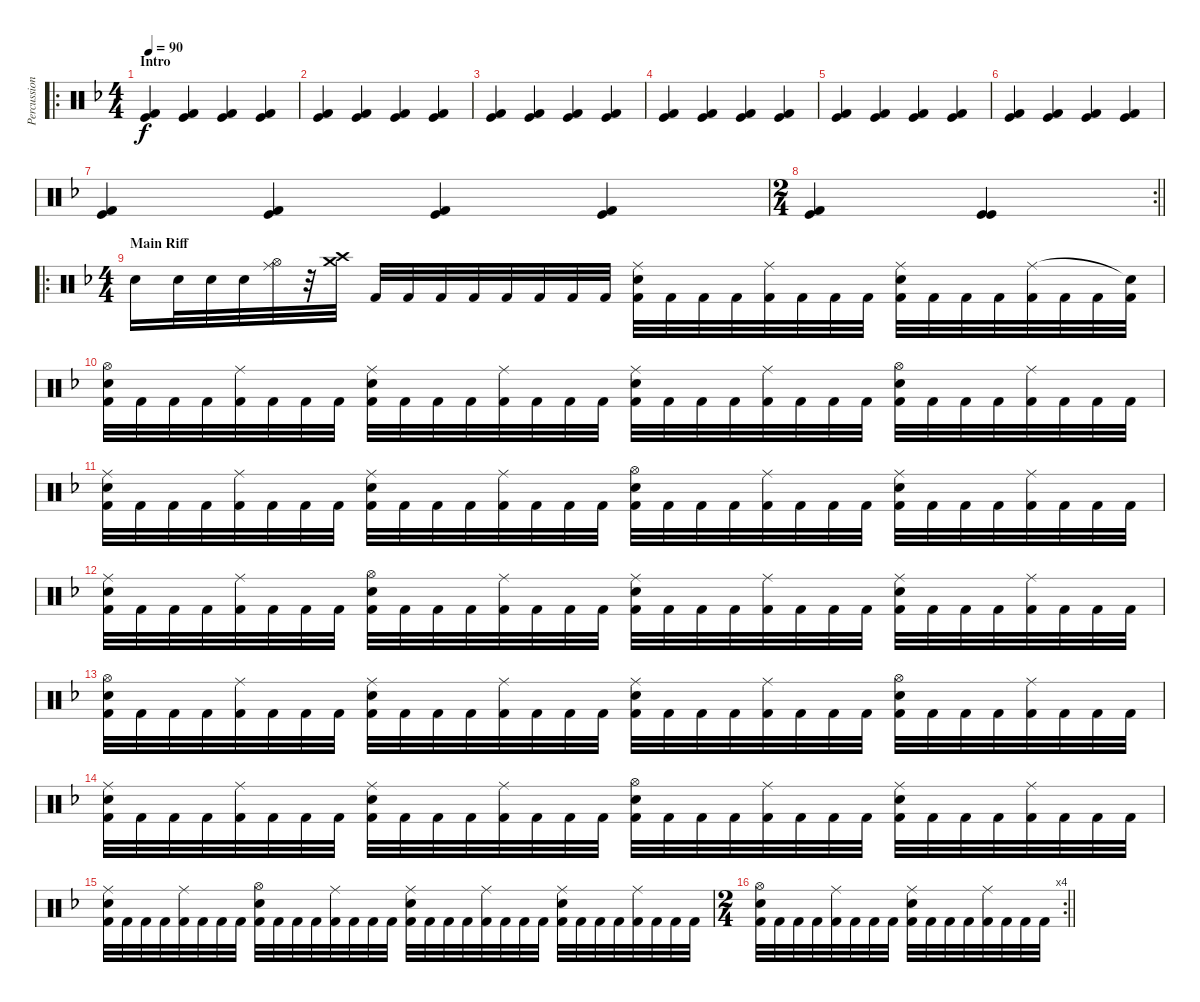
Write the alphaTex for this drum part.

\track ("Percussion" "Percussion") {instrument percussion}
\staff {score}
\articulation defaults
\ro
\ts (4 4)
\section ("" "Intro")
\tempo 90
\clef neutral
\ks f
("Kick (hit) 2" "Kick (hit)").4{dy f} ("Kick (hit) 2" "Kick (hit)").4 ("Kick (hit) 2" "Kick (hit)").4 ("Kick (hit) 2" "Kick (hit)").4 |
("Kick (hit) 2" "Kick (hit)").4 ("Kick (hit) 2" "Kick (hit)").4 ("Kick (hit) 2" "Kick (hit)").4 ("Kick (hit) 2" "Kick (hit)").4 |
("Kick (hit) 2" "Kick (hit)").4 ("Kick (hit) 2" "Kick (hit)").4 ("Kick (hit) 2" "Kick (hit)").4 ("Kick (hit) 2" "Kick (hit)").4 |
("Kick (hit) 2" "Kick (hit)").4 ("Kick (hit) 2" "Kick (hit)").4 ("Kick (hit) 2" "Kick (hit)").4 ("Kick (hit) 2" "Kick (hit)").4 |
("Kick (hit) 2" "Kick (hit)").4 ("Kick (hit) 2" "Kick (hit)").4 ("Kick (hit) 2" "Kick (hit)").4 ("Kick (hit) 2" "Kick (hit)").4 |
("Kick (hit) 2" "Kick (hit)").4 ("Kick (hit) 2" "Kick (hit)").4 ("Kick (hit) 2" "Kick (hit)").4 ("Kick (hit) 2" "Kick (hit)").4 |
("Kick (hit) 2" "Kick (hit)").4 ("Kick (hit) 2" "Kick (hit)").4 ("Kick (hit) 2" "Kick (hit)").4 ("Kick (hit) 2" "Kick (hit)").4 |
\rc 2
\ts (2 4)
\barLineRight lightlight
("Kick (hit) 2" "Kick (hit)").4 ("Kick (hit)" "Kick (hit)").4 |
\ro
\ts (4 4)
\section ("" "Main Riff")
"Electric Snare (hit)".16 "Electric Snare (hit)".32 "Electric Snare (hit)".32 "Electric Snare (hit)".32 ("Hi-Hat (open)" "Ride (middle)").32 r.32 ("Crash high (hit)" "Crash medium (hit)").32 "Kick (hit) 2".32 "Kick (hit) 2".32 "Kick (hit) 2".32 "Kick (hit) 2".32 "Kick (hit) 2".32 "Kick (hit) 2".32 "Kick (hit) 2".32 "Kick (hit) 2".32 ("Kick (hit) 2" "Ride (middle)" "Electric Snare (hit)").32 "Kick (hit) 2".32 "Kick (hit) 2".32 "Kick (hit) 2".32 ("Kick (hit) 2" "Ride (middle)").32 "Kick (hit) 2".32 "Kick (hit) 2".32 "Kick (hit) 2".32 ("Kick (hit) 2" "Ride (middle)" "Electric Snare (hit)").32 "Kick (hit) 2".32 "Kick (hit) 2".32 "Kick (hit) 2".32 ("Kick (hit) 2" "Ride (middle)").32 "Kick (hit) 2".32 "Kick (hit) 2".32 ("Kick (hit) 2" "Snare (hit)"{t}).32 |
("Kick (hit) 2" "Hi-Hat (open)" "Electric Snare (hit)").32 "Kick (hit) 2".32 "Kick (hit) 2".32 "Kick (hit) 2".32 ("Kick (hit) 2" "Ride (middle)").32 "Kick (hit) 2".32 "Kick (hit) 2".32 "Kick (hit) 2".32 ("Kick (hit) 2" "Ride (middle)" "Electric Snare (hit)").32 "Kick (hit) 2".32 "Kick (hit) 2".32 "Kick (hit) 2".32 ("Kick (hit) 2" "Ride (middle)").32 "Kick (hit) 2".32 "Kick (hit) 2".32 "Kick (hit) 2".32 ("Kick (hit) 2" "Ride (middle)" "Electric Snare (hit)").32 "Kick (hit) 2".32 "Kick (hit) 2".32 "Kick (hit) 2".32 ("Kick (hit) 2" "Ride (middle)").32 "Kick (hit) 2".32 "Kick (hit) 2".32 "Kick (hit) 2".32 ("Kick (hit) 2" "Hi-Hat (open)" "Electric Snare (hit)").32 "Kick (hit) 2".32 "Kick (hit) 2".32 "Kick (hit) 2".32 ("Kick (hit) 2" "Ride (middle)").32 "Kick (hit) 2".32 "Kick (hit) 2".32 "Kick (hit) 2".32 |
("Kick (hit) 2" "Ride (middle)" "Electric Snare (hit)").32 "Kick (hit) 2".32 "Kick (hit) 2".32 "Kick (hit) 2".32 ("Kick (hit) 2" "Ride (middle)").32 "Kick (hit) 2".32 "Kick (hit) 2".32 "Kick (hit) 2".32 ("Kick (hit) 2" "Ride (middle)" "Electric Snare (hit)").32 "Kick (hit) 2".32 "Kick (hit) 2".32 "Kick (hit) 2".32 ("Kick (hit) 2" "Ride (middle)").32 "Kick (hit) 2".32 "Kick (hit) 2".32 "Kick (hit) 2".32 ("Kick (hit) 2" "Hi-Hat (open)" "Electric Snare (hit)").32 "Kick (hit) 2".32 "Kick (hit) 2".32 "Kick (hit) 2".32 ("Kick (hit) 2" "Ride (middle)").32 "Kick (hit) 2".32 "Kick (hit) 2".32 "Kick (hit) 2".32 ("Kick (hit) 2" "Ride (middle)" "Electric Snare (hit)").32 "Kick (hit) 2".32 "Kick (hit) 2".32 "Kick (hit) 2".32 ("Kick (hit) 2" "Ride (middle)").32 "Kick (hit) 2".32 "Kick (hit) 2".32 "Kick (hit) 2".32 |
("Kick (hit) 2" "Ride (middle)" "Electric Snare (hit)").32 "Kick (hit) 2".32 "Kick (hit) 2".32 "Kick (hit) 2".32 ("Kick (hit) 2" "Ride (middle)").32 "Kick (hit) 2".32 "Kick (hit) 2".32 "Kick (hit) 2".32 ("Kick (hit) 2" "Hi-Hat (open)" "Electric Snare (hit)").32 "Kick (hit) 2".32 "Kick (hit) 2".32 "Kick (hit) 2".32 ("Kick (hit) 2" "Ride (middle)").32 "Kick (hit) 2".32 "Kick (hit) 2".32 "Kick (hit) 2".32 ("Kick (hit) 2" "Ride (middle)" "Electric Snare (hit)").32 "Kick (hit) 2".32 "Kick (hit) 2".32 "Kick (hit) 2".32 ("Kick (hit) 2" "Ride (middle)").32 "Kick (hit) 2".32 "Kick (hit) 2".32 "Kick (hit) 2".32 ("Kick (hit) 2" "Ride (middle)" "Electric Snare (hit)").32 "Kick (hit) 2".32 "Kick (hit) 2".32 "Kick (hit) 2".32 ("Kick (hit) 2" "Ride (middle)").32 "Kick (hit) 2".32 "Kick (hit) 2".32 "Kick (hit) 2".32 |
("Kick (hit) 2" "Hi-Hat (open)" "Electric Snare (hit)").32 "Kick (hit) 2".32 "Kick (hit) 2".32 "Kick (hit) 2".32 ("Kick (hit) 2" "Ride (middle)").32 "Kick (hit) 2".32 "Kick (hit) 2".32 "Kick (hit) 2".32 ("Kick (hit) 2" "Ride (middle)" "Electric Snare (hit)").32 "Kick (hit) 2".32 "Kick (hit) 2".32 "Kick (hit) 2".32 ("Kick (hit) 2" "Ride (middle)").32 "Kick (hit) 2".32 "Kick (hit) 2".32 "Kick (hit) 2".32 ("Kick (hit) 2" "Ride (middle)" "Electric Snare (hit)").32 "Kick (hit) 2".32 "Kick (hit) 2".32 "Kick (hit) 2".32 ("Kick (hit) 2" "Ride (middle)").32 "Kick (hit) 2".32 "Kick (hit) 2".32 "Kick (hit) 2".32 ("Kick (hit) 2" "Hi-Hat (open)" "Electric Snare (hit)").32 "Kick (hit) 2".32 "Kick (hit) 2".32 "Kick (hit) 2".32 ("Kick (hit) 2" "Ride (middle)").32 "Kick (hit) 2".32 "Kick (hit) 2".32 "Kick (hit) 2".32 |
("Kick (hit) 2" "Ride (middle)" "Electric Snare (hit)").32 "Kick (hit) 2".32 "Kick (hit) 2".32 "Kick (hit) 2".32 ("Kick (hit) 2" "Ride (middle)").32 "Kick (hit) 2".32 "Kick (hit) 2".32 "Kick (hit) 2".32 ("Kick (hit) 2" "Ride (middle)" "Electric Snare (hit)").32 "Kick (hit) 2".32 "Kick (hit) 2".32 "Kick (hit) 2".32 ("Kick (hit) 2" "Ride (middle)").32 "Kick (hit) 2".32 "Kick (hit) 2".32 "Kick (hit) 2".32 ("Kick (hit) 2" "Hi-Hat (open)" "Electric Snare (hit)").32 "Kick (hit) 2".32 "Kick (hit) 2".32 "Kick (hit) 2".32 ("Kick (hit) 2" "Ride (middle)").32 "Kick (hit) 2".32 "Kick (hit) 2".32 "Kick (hit) 2".32 ("Kick (hit) 2" "Ride (middle)" "Electric Snare (hit)").32 "Kick (hit) 2".32 "Kick (hit) 2".32 "Kick (hit) 2".32 ("Kick (hit) 2" "Ride (middle)").32 "Kick (hit) 2".32 "Kick (hit) 2".32 "Kick (hit) 2".32 |
("Kick (hit) 2" "Ride (middle)" "Electric Snare (hit)").32 "Kick (hit) 2".32 "Kick (hit) 2".32 "Kick (hit) 2".32 ("Kick (hit) 2" "Ride (middle)").32 "Kick (hit) 2".32 "Kick (hit) 2".32 "Kick (hit) 2".32 ("Kick (hit) 2" "Hi-Hat (open)" "Electric Snare (hit)").32 "Kick (hit) 2".32 "Kick (hit) 2".32 "Kick (hit) 2".32 ("Kick (hit) 2" "Ride (middle)").32 "Kick (hit) 2".32 "Kick (hit) 2".32 "Kick (hit) 2".32 ("Kick (hit) 2" "Ride (middle)" "Electric Snare (hit)").32 "Kick (hit) 2".32 "Kick (hit) 2".32 "Kick (hit) 2".32 ("Kick (hit) 2" "Ride (middle)").32 "Kick (hit) 2".32 "Kick (hit) 2".32 "Kick (hit) 2".32 ("Kick (hit) 2" "Ride (middle)" "Electric Snare (hit)").32 "Kick (hit) 2".32 "Kick (hit) 2".32 "Kick (hit) 2".32 ("Kick (hit) 2" "Ride (middle)").32 "Kick (hit) 2".32 "Kick (hit) 2".32 "Kick (hit) 2".32 |
\rc 4
\ts (2 4)
\barLineRight lightlight
("Kick (hit) 2" "Hi-Hat (open)" "Electric Snare (hit)").32 "Kick (hit) 2".32 "Kick (hit) 2".32 "Kick (hit) 2".32 ("Kick (hit) 2" "Ride (middle)").32 "Kick (hit) 2".32 "Kick (hit) 2".32 "Kick (hit) 2".32 ("Kick (hit) 2" "Ride (middle)" "Electric Snare (hit)").32 "Kick (hit) 2".32 "Kick (hit) 2".32 "Kick (hit) 2".32 ("Kick (hit) 2" "Ride (middle)").32 "Kick (hit) 2".32 "Kick (hit) 2".32 "Kick (hit) 2".32
